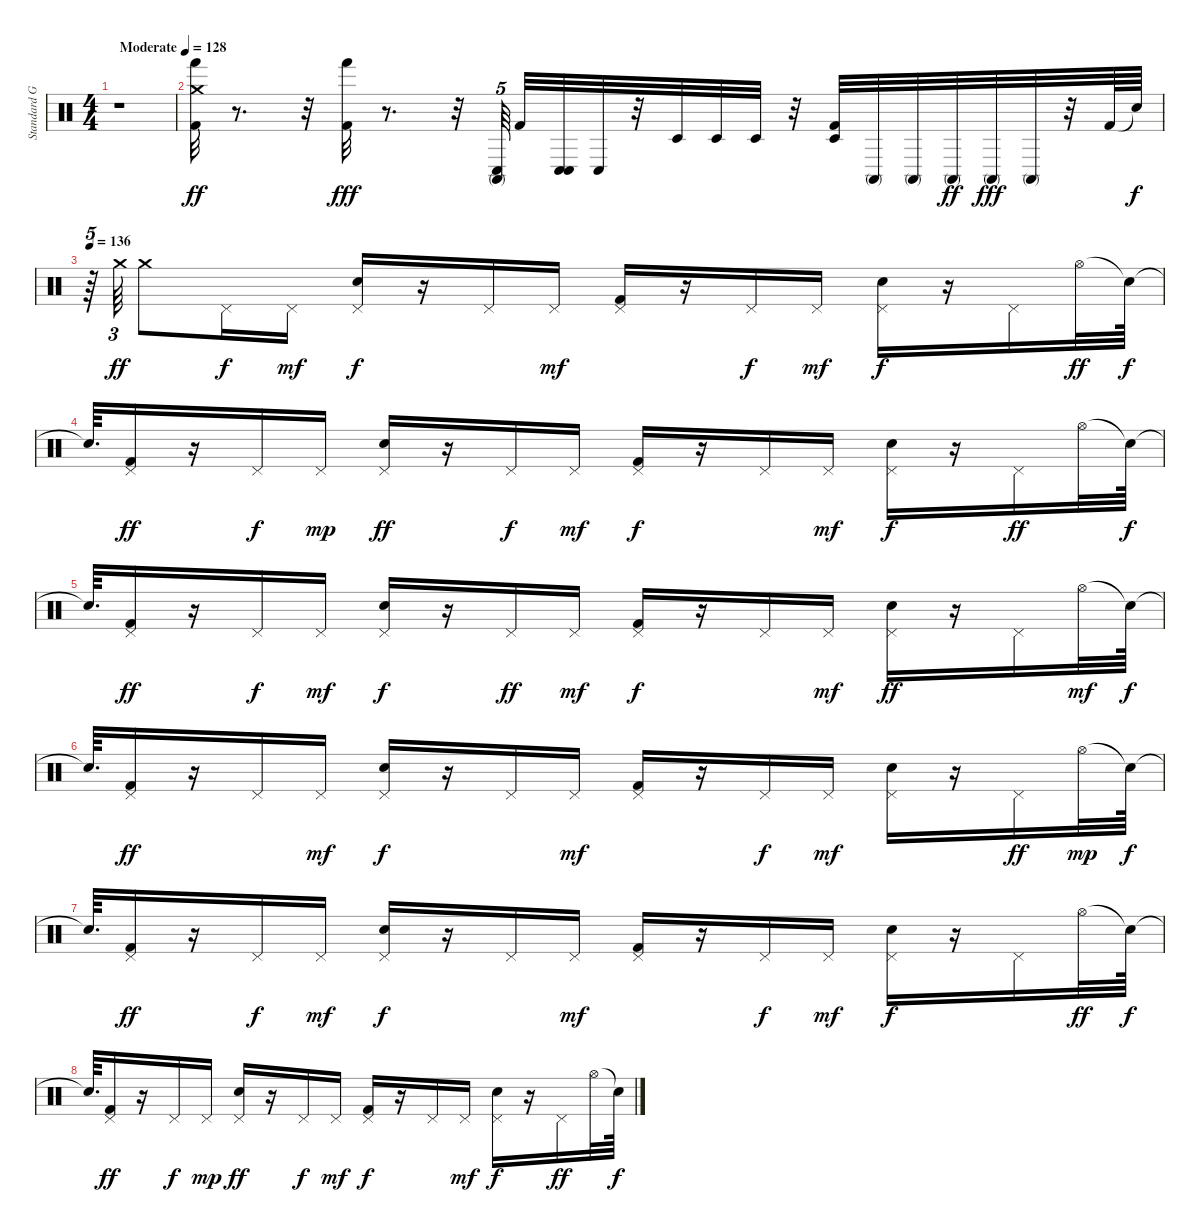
\track ("Standard GM Drum Kit" "Standard G") {instrument percussion}
\staff {score}
\articulation defaults
\ts (4 4)
\tempo (128 "Moderate")
\clef neutral
\ks c
r.1{dy ff} |
("Crash medium (hit)" "Hand (hit)" "Kick (hit) 2").32 r.8{d} r.32 ("Hand (hit)" "Kick (hit) 2").32{dy fff} r.8{d} r.32 ("Conga high (mute)" "Conga low (hit)").64{tu (5 4)} "Kick (hit) 2".32 ("Conga low (hit)" "Conga low (hit)").32 "Conga low (hit)".32 r.32 "Timbale low (hit)".32 "Timbale low (hit)".32 "Timbale low (hit)".32 r.32 ("Timbale low (hit)" "Kick (hit) 2").32 "Conga high (mute)".32 "Conga high (mute)".32 "Conga high (mute)".32{dy ff} "Conga high (mute)".32{dy fff} "Conga high (mute)".32 r.32 "Kick (hit) 2".64 "Snare (hit)"{t}.64{dy f} |
\tempo 136
r.64{tu (5 4)} "Crash medium (hit)".64{tu (3 2) dy ff} "Crash medium (hit)".8 "Pedal Hi-Hat (hit)".16{dy f} "Pedal Hi-Hat (hit)".16{dy mf} ("Pedal Hi-Hat (hit)" "Electric Snare (hit)").16{dy f} r.16 "Pedal Hi-Hat (hit)".16 "Pedal Hi-Hat (hit)".16{dy mf} ("Pedal Hi-Hat (hit)" "Kick (hit) 2").16 r.16 "Pedal Hi-Hat (hit)".16{dy f} "Pedal Hi-Hat (hit)".16{dy mf} ("Pedal Hi-Hat (hit)" "Electric Snare (hit)").16{dy f} r.16 "Pedal Hi-Hat (hit)".16 "Hi-Hat (open)".32{dy ff} "Snare (hit)"{t}.64{dy f} |
"Snare (hit)"{t}.64{d} ("Pedal Hi-Hat (hit)" "Kick (hit) 2").16{dy ff} r.16 "Pedal Hi-Hat (hit)".16{dy f} "Pedal Hi-Hat (hit)".16{dy mp} ("Pedal Hi-Hat (hit)" "Electric Snare (hit)").16{dy ff} r.16 "Pedal Hi-Hat (hit)".16{dy f} "Pedal Hi-Hat (hit)".16{dy mf} ("Kick (hit) 2" "Pedal Hi-Hat (hit)").16{dy f} r.16 "Pedal Hi-Hat (hit)".16 "Pedal Hi-Hat (hit)".16{dy mf} ("Electric Snare (hit)" "Pedal Hi-Hat (hit)").16{dy f} r.16 "Pedal Hi-Hat (hit)".16{dy ff} "Hi-Hat (open)".32 "Snare (hit)"{t}.64{dy f} |
"Snare (hit)"{t}.64{d} ("Pedal Hi-Hat (hit)" "Kick (hit) 2").16{dy ff} r.16 "Pedal Hi-Hat (hit)".16{dy f} "Pedal Hi-Hat (hit)".16{dy mf} ("Pedal Hi-Hat (hit)" "Electric Snare (hit)").16{dy f} r.16 "Pedal Hi-Hat (hit)".16{dy ff} "Pedal Hi-Hat (hit)".16{dy mf} ("Kick (hit) 2" "Pedal Hi-Hat (hit)").16{dy f} r.16 "Pedal Hi-Hat (hit)".16 "Pedal Hi-Hat (hit)".16{dy mf} ("Electric Snare (hit)" "Pedal Hi-Hat (hit)").16{dy ff} r.16 "Pedal Hi-Hat (hit)".16 "Hi-Hat (open)".32{dy mf} "Snare (hit)"{t}.64{dy f} |
"Snare (hit)"{t}.64{d} ("Pedal Hi-Hat (hit)" "Kick (hit) 2").16{dy ff} r.16 "Pedal Hi-Hat (hit)".16 "Pedal Hi-Hat (hit)".16{dy mf} ("Pedal Hi-Hat (hit)" "Electric Snare (hit)").16{dy f} r.16 "Pedal Hi-Hat (hit)".16 "Pedal Hi-Hat (hit)".16{dy mf} ("Kick (hit) 2" "Pedal Hi-Hat (hit)").16 r.16 "Pedal Hi-Hat (hit)".16{dy f} "Pedal Hi-Hat (hit)".16{dy mf} ("Electric Snare (hit)" "Pedal Hi-Hat (hit)").16 r.16 "Pedal Hi-Hat (hit)".16{dy ff} "Hi-Hat (open)".32{dy mp} "Snare (hit)"{t}.64{dy f} |
"Snare (hit)"{t}.64{d} ("Kick (hit) 2" "Pedal Hi-Hat (hit)").16{dy ff} r.16 "Pedal Hi-Hat (hit)".16{dy f} "Pedal Hi-Hat (hit)".16{dy mf} ("Pedal Hi-Hat (hit)" "Electric Snare (hit)").16{dy f} r.16 "Pedal Hi-Hat (hit)".16 "Pedal Hi-Hat (hit)".16{dy mf} ("Pedal Hi-Hat (hit)" "Kick (hit) 2").16 r.16 "Pedal Hi-Hat (hit)".16{dy f} "Pedal Hi-Hat (hit)".16{dy mf} ("Pedal Hi-Hat (hit)" "Electric Snare (hit)").16{dy f} r.16 "Pedal Hi-Hat (hit)".16 "Hi-Hat (open)".32{dy ff} "Snare (hit)"{t}.64{dy f} |
"Snare (hit)"{t}.64{d} ("Pedal Hi-Hat (hit)" "Kick (hit) 2").16{dy ff} r.16 "Pedal Hi-Hat (hit)".16{dy f} "Pedal Hi-Hat (hit)".16{dy mp} ("Pedal Hi-Hat (hit)" "Electric Snare (hit)").16{dy ff} r.16 "Pedal Hi-Hat (hit)".16{dy f} "Pedal Hi-Hat (hit)".16{dy mf} ("Kick (hit) 2" "Pedal Hi-Hat (hit)").16{dy f} r.16 "Pedal Hi-Hat (hit)".16 "Pedal Hi-Hat (hit)".16{dy mf} ("Electric Snare (hit)" "Pedal Hi-Hat (hit)").16{dy f} r.16 "Pedal Hi-Hat (hit)".16{dy ff} "Hi-Hat (open)".32 "Snare (hit)"{t}.64{dy f}
